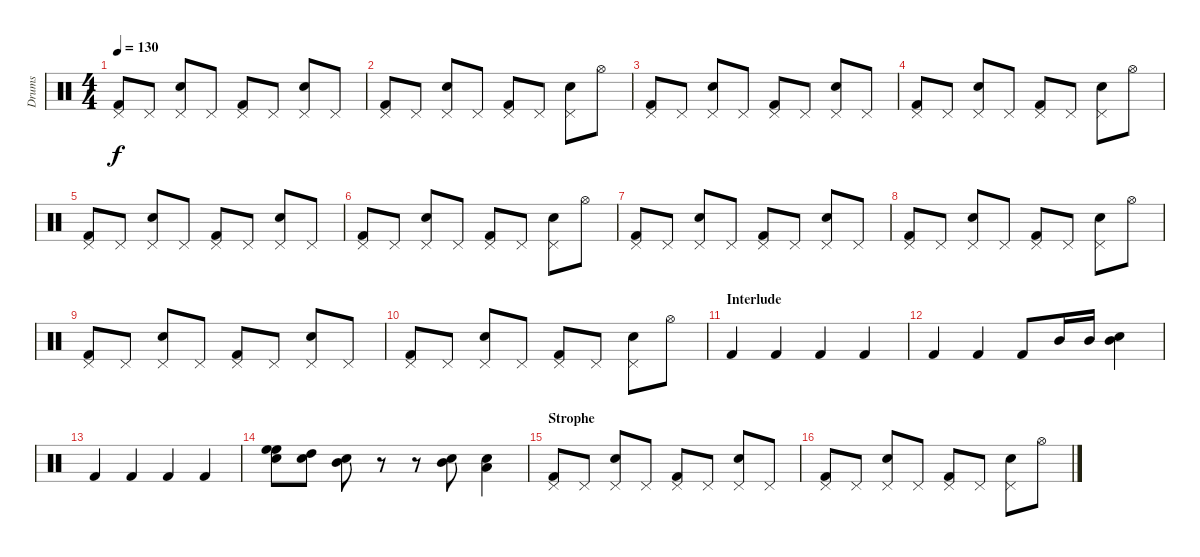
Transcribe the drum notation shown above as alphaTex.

\track ("Drums" "Drums") {instrument percussion}
\staff {score}
\articulation defaults
\ts (4 4)
\tempo 130
\clef neutral
\ks c
("Pedal Hi-Hat (hit)" "Kick (hit) 2").8{dy f} "Pedal Hi-Hat (hit)".8 ("Pedal Hi-Hat (hit)" "Snare (hit) 2").8 "Pedal Hi-Hat (hit)".8 ("Pedal Hi-Hat (hit)" "Kick (hit) 2").8 "Pedal Hi-Hat (hit)".8 ("Pedal Hi-Hat (hit)" "Snare (hit) 2").8 "Pedal Hi-Hat (hit)".8 |
("Pedal Hi-Hat (hit)" "Kick (hit) 2").8 "Pedal Hi-Hat (hit)".8 ("Pedal Hi-Hat (hit)" "Snare (hit) 2").8 "Pedal Hi-Hat (hit)".8 ("Pedal Hi-Hat (hit)" "Kick (hit) 2").8 "Pedal Hi-Hat (hit)".8 ("Pedal Hi-Hat (hit)" "Snare (hit) 2").8 "Hi-Hat (open)".8 |
("Pedal Hi-Hat (hit)" "Kick (hit) 2").8 "Pedal Hi-Hat (hit)".8 ("Pedal Hi-Hat (hit)" "Snare (hit) 2").8 "Pedal Hi-Hat (hit)".8 ("Pedal Hi-Hat (hit)" "Kick (hit) 2").8 "Pedal Hi-Hat (hit)".8 ("Pedal Hi-Hat (hit)" "Snare (hit) 2").8 "Pedal Hi-Hat (hit)".8 |
("Pedal Hi-Hat (hit)" "Kick (hit) 2").8 "Pedal Hi-Hat (hit)".8 ("Pedal Hi-Hat (hit)" "Snare (hit) 2").8 "Pedal Hi-Hat (hit)".8 ("Pedal Hi-Hat (hit)" "Kick (hit) 2").8 "Pedal Hi-Hat (hit)".8 ("Pedal Hi-Hat (hit)" "Snare (hit) 2").8 "Hi-Hat (open)".8 |
("Pedal Hi-Hat (hit)" "Kick (hit) 2").8 "Pedal Hi-Hat (hit)".8 ("Pedal Hi-Hat (hit)" "Snare (hit) 2").8 "Pedal Hi-Hat (hit)".8 ("Pedal Hi-Hat (hit)" "Kick (hit) 2").8 "Pedal Hi-Hat (hit)".8 ("Pedal Hi-Hat (hit)" "Snare (hit) 2").8 "Pedal Hi-Hat (hit)".8 |
("Pedal Hi-Hat (hit)" "Kick (hit) 2").8 "Pedal Hi-Hat (hit)".8 ("Pedal Hi-Hat (hit)" "Snare (hit) 2").8 "Pedal Hi-Hat (hit)".8 ("Pedal Hi-Hat (hit)" "Kick (hit) 2").8 "Pedal Hi-Hat (hit)".8 ("Pedal Hi-Hat (hit)" "Snare (hit) 2").8 "Hi-Hat (open)".8 |
("Pedal Hi-Hat (hit)" "Kick (hit) 2").8 "Pedal Hi-Hat (hit)".8 ("Pedal Hi-Hat (hit)" "Snare (hit) 2").8 "Pedal Hi-Hat (hit)".8 ("Pedal Hi-Hat (hit)" "Kick (hit) 2").8 "Pedal Hi-Hat (hit)".8 ("Pedal Hi-Hat (hit)" "Snare (hit) 2").8 "Pedal Hi-Hat (hit)".8 |
("Pedal Hi-Hat (hit)" "Kick (hit) 2").8 "Pedal Hi-Hat (hit)".8 ("Pedal Hi-Hat (hit)" "Snare (hit) 2").8 "Pedal Hi-Hat (hit)".8 ("Pedal Hi-Hat (hit)" "Kick (hit) 2").8 "Pedal Hi-Hat (hit)".8 ("Pedal Hi-Hat (hit)" "Snare (hit) 2").8 "Hi-Hat (open)".8 |
("Pedal Hi-Hat (hit)" "Kick (hit) 2").8 "Pedal Hi-Hat (hit)".8 ("Pedal Hi-Hat (hit)" "Snare (hit) 2").8 "Pedal Hi-Hat (hit)".8 ("Pedal Hi-Hat (hit)" "Kick (hit) 2").8 "Pedal Hi-Hat (hit)".8 ("Pedal Hi-Hat (hit)" "Snare (hit) 2").8 "Pedal Hi-Hat (hit)".8 |
("Pedal Hi-Hat (hit)" "Kick (hit) 2").8 "Pedal Hi-Hat (hit)".8 ("Pedal Hi-Hat (hit)" "Snare (hit) 2").8 "Pedal Hi-Hat (hit)".8 ("Pedal Hi-Hat (hit)" "Kick (hit) 2").8 "Pedal Hi-Hat (hit)".8 ("Pedal Hi-Hat (hit)" "Snare (hit) 2").8 "Hi-Hat (open)".8 |
\section ("" "Interlude")
"Kick (hit) 2".4 "Kick (hit) 2".4 "Kick (hit) 2".4 "Kick (hit) 2".4 |
"Kick (hit) 2".4 "Kick (hit) 2".4 "Kick (hit) 2".8 "Mid Tom (hit)".16 "Mid Tom (hit)".16 ("Mid Tom (hit)" "Electric Snare (hit)").4 |
"Kick (hit) 2".4 "Kick (hit) 2".4 "Kick (hit) 2".4 "Kick (hit) 2".4 |
("High Floor Tom (hit)" "High Floor Tom (hit)" "Electric Snare (hit)").8 ("High Tom (hit)" "Electric Snare (hit)").8 ("Mid Tom (hit)" "Electric Snare (hit)").8 r.8 r.8 ("Mid Tom (hit)" "Electric Snare (hit)").8 ("Low Tom (hit)" "Electric Snare (hit)").4 |
\section ("" "Strophe")
("Pedal Hi-Hat (hit)" "Kick (hit) 2").8 "Pedal Hi-Hat (hit)".8 ("Pedal Hi-Hat (hit)" "Snare (hit) 2").8 "Pedal Hi-Hat (hit)".8 ("Pedal Hi-Hat (hit)" "Kick (hit) 2").8 "Pedal Hi-Hat (hit)".8 ("Pedal Hi-Hat (hit)" "Snare (hit) 2").8 "Pedal Hi-Hat (hit)".8 |
("Pedal Hi-Hat (hit)" "Kick (hit) 2").8 "Pedal Hi-Hat (hit)".8 ("Pedal Hi-Hat (hit)" "Snare (hit) 2").8 "Pedal Hi-Hat (hit)".8 ("Pedal Hi-Hat (hit)" "Kick (hit) 2").8 "Pedal Hi-Hat (hit)".8 ("Pedal Hi-Hat (hit)" "Snare (hit) 2").8 "Hi-Hat (open)".8
